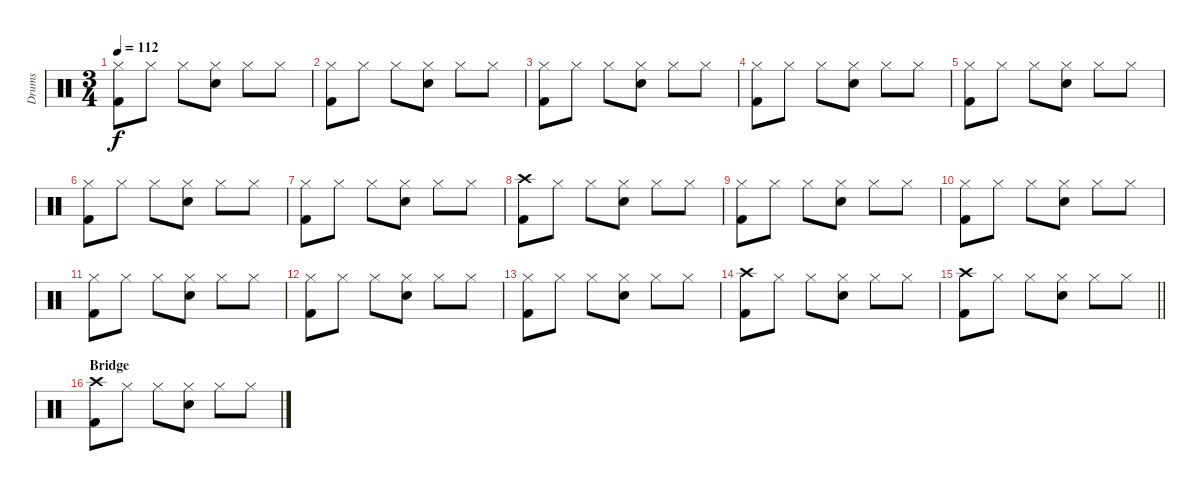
\track ("Drums" "Drums") {instrument percussion}
\staff {score}
\articulation defaults
\ts (3 4)
\tempo 112
\clef neutral
\ks c
("Hi-Hat (closed)" "Kick (hit) 2").8{dy f} "Hi-Hat (closed)".8 "Hi-Hat (closed)".8 ("Hi-Hat (closed)" "Snare (hit) 2").8 "Hi-Hat (closed)".8 "Hi-Hat (closed)".8 |
("Hi-Hat (closed)" "Kick (hit) 2").8 "Hi-Hat (closed)".8 "Hi-Hat (closed)".8 ("Hi-Hat (closed)" "Snare (hit) 2").8 "Hi-Hat (closed)".8 "Hi-Hat (closed)".8 |
("Hi-Hat (closed)" "Kick (hit) 2").8 "Hi-Hat (closed)".8 "Hi-Hat (closed)".8 ("Hi-Hat (closed)" "Snare (hit) 2").8 "Hi-Hat (closed)".8 "Hi-Hat (closed)".8 |
("Hi-Hat (closed)" "Kick (hit) 2").8 "Hi-Hat (closed)".8 "Hi-Hat (closed)".8 ("Hi-Hat (closed)" "Snare (hit) 2").8 "Hi-Hat (closed)".8 "Hi-Hat (closed)".8 |
("Hi-Hat (closed)" "Kick (hit) 2").8 "Hi-Hat (closed)".8 "Hi-Hat (closed)".8 ("Hi-Hat (closed)" "Snare (hit) 2").8 "Hi-Hat (closed)".8 "Hi-Hat (closed)".8 |
("Hi-Hat (closed)" "Kick (hit) 2").8 "Hi-Hat (closed)".8 "Hi-Hat (closed)".8 ("Hi-Hat (closed)" "Snare (hit) 2").8 "Hi-Hat (closed)".8 "Hi-Hat (closed)".8 |
("Hi-Hat (closed)" "Kick (hit) 2").8 "Hi-Hat (closed)".8 "Hi-Hat (closed)".8 ("Hi-Hat (closed)" "Snare (hit) 2").8 "Hi-Hat (closed)".8 "Hi-Hat (closed)".8 |
("Crash high (hit)" "Kick (hit) 2").8 "Hi-Hat (closed)".8 "Hi-Hat (closed)".8 ("Hi-Hat (closed)" "Snare (hit) 2").8 "Hi-Hat (closed)".8 "Hi-Hat (closed)".8 |
("Hi-Hat (closed)" "Kick (hit) 2").8 "Hi-Hat (closed)".8 "Hi-Hat (closed)".8 ("Hi-Hat (closed)" "Snare (hit) 2").8 "Hi-Hat (closed)".8 "Hi-Hat (closed)".8 |
("Hi-Hat (closed)" "Kick (hit) 2").8 "Hi-Hat (closed)".8 "Hi-Hat (closed)".8 ("Hi-Hat (closed)" "Snare (hit) 2").8 "Hi-Hat (closed)".8 "Hi-Hat (closed)".8 |
("Hi-Hat (closed)" "Kick (hit) 2").8 "Hi-Hat (closed)".8 "Hi-Hat (closed)".8 ("Hi-Hat (closed)" "Snare (hit) 2").8 "Hi-Hat (closed)".8 "Hi-Hat (closed)".8 |
("Hi-Hat (closed)" "Kick (hit) 2").8 "Hi-Hat (closed)".8 "Hi-Hat (closed)".8 ("Hi-Hat (closed)" "Snare (hit) 2").8 "Hi-Hat (closed)".8 "Hi-Hat (closed)".8 |
("Hi-Hat (closed)" "Kick (hit) 2").8 "Hi-Hat (closed)".8 "Hi-Hat (closed)".8 ("Hi-Hat (closed)" "Snare (hit) 2").8 "Hi-Hat (closed)".8 "Hi-Hat (closed)".8 |
("Crash high (hit)" "Kick (hit) 2").8 "Hi-Hat (closed)".8 "Hi-Hat (closed)".8 ("Hi-Hat (closed)" "Snare (hit) 2").8 "Hi-Hat (closed)".8 "Hi-Hat (closed)".8 |
\barLineRight lightlight
("Crash high (hit)" "Kick (hit) 2").8 "Hi-Hat (closed)".8 "Hi-Hat (closed)".8 ("Hi-Hat (closed)" "Snare (hit) 2").8 "Hi-Hat (closed)".8 "Hi-Hat (closed)".8 |
\section ("" "Bridge")
("Crash high (hit)" "Kick (hit) 2").8 "Hi-Hat (closed)".8 "Hi-Hat (closed)".8 ("Hi-Hat (closed)" "Snare (hit) 2").8 "Hi-Hat (closed)".8 "Hi-Hat (closed)".8
